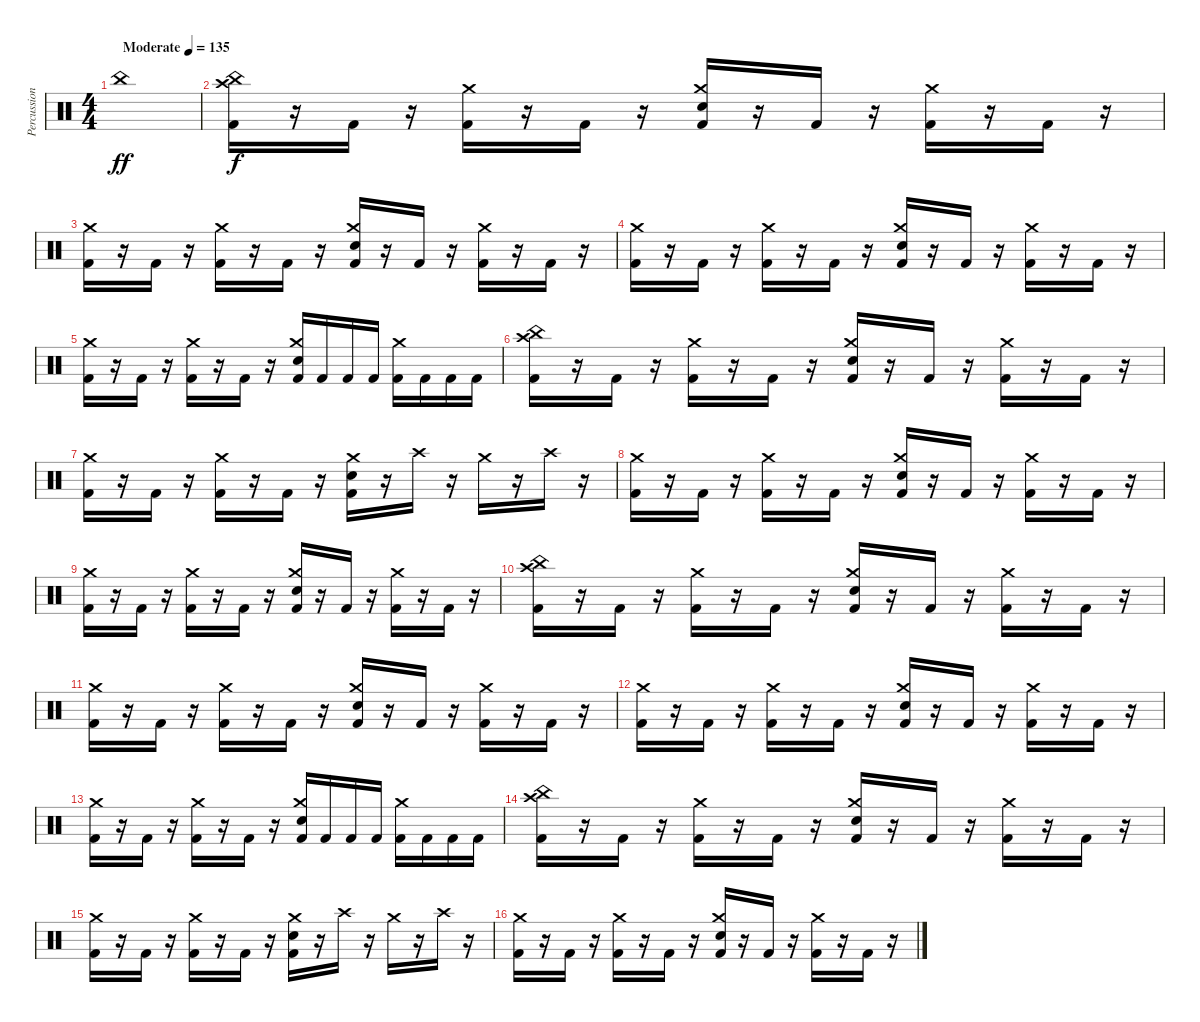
\track ("Percussion" "Percussion") {instrument percussion}
\staff {score}
\articulation defaults
\ts (4 4)
\tempo (135 "Moderate")
\clef neutral
\ks c "China (hit)".1{dy ff}
|
("Crash high (hit)" "China (hit)" "Kick (hit) 2").16{dy f} r.16 "Kick (hit) 2".16 r.16 ("Crash medium (hit)" "Kick (hit) 2").16 r.16 "Kick (hit) 2".16 r.16 ("Crash medium (hit)" "Snare (hit) 2" "Kick (hit) 2").16 r.16 "Kick (hit) 2".16 r.16 ("Crash medium (hit)" "Kick (hit) 2").16 r.16 "Kick (hit) 2".16 r.16 |
("Crash medium (hit)" "Kick (hit) 2").16 r.16 "Kick (hit) 2".16 r.16 ("Crash medium (hit)" "Kick (hit) 2").16 r.16 "Kick (hit) 2".16 r.16 ("Crash medium (hit)" "Snare (hit) 2" "Kick (hit) 2").16 r.16 "Kick (hit) 2".16 r.16 ("Crash medium (hit)" "Kick (hit) 2").16 r.16 "Kick (hit) 2".16 r.16 |
("Crash medium (hit)" "Kick (hit) 2").16 r.16 "Kick (hit) 2".16 r.16 ("Crash medium (hit)" "Kick (hit) 2").16 r.16 "Kick (hit) 2".16 r.16 ("Crash medium (hit)" "Snare (hit) 2" "Kick (hit) 2").16 r.16 "Kick (hit) 2".16 r.16 ("Crash medium (hit)" "Kick (hit) 2").16 r.16 "Kick (hit) 2".16 r.16 |
("Crash medium (hit)" "Kick (hit) 2").16 r.16 "Kick (hit) 2".16 r.16 ("Crash medium (hit)" "Kick (hit) 2").16 r.16 "Kick (hit) 2".16 r.16 ("Crash medium (hit)" "Snare (hit) 2" "Kick (hit) 2").16 "Kick (hit) 2".16 "Kick (hit) 2".16 "Kick (hit) 2".16 ("Crash medium (hit)" "Kick (hit) 2").16 "Kick (hit) 2".16 "Kick (hit) 2".16 "Kick (hit) 2".16 |
("Crash high (hit)" "China (hit)" "Kick (hit) 2").16 r.16 "Kick (hit) 2".16 r.16 ("Crash medium (hit)" "Kick (hit) 2").16 r.16 "Kick (hit) 2".16 r.16 ("Crash medium (hit)" "Snare (hit) 2" "Kick (hit) 2").16 r.16 "Kick (hit) 2".16 r.16 ("Crash medium (hit)" "Kick (hit) 2").16 r.16 "Kick (hit) 2".16 r.16 |
("Crash medium (hit)" "Kick (hit) 2").16 r.16 "Kick (hit) 2".16 r.16 ("Crash medium (hit)" "Kick (hit) 2").16 r.16 "Kick (hit) 2".16 r.16 ("Crash medium (hit)" "Snare (hit) 2" "Kick (hit) 2").16 r.16 "Crash high (hit)".16 r.16 "Crash medium (hit)".16 r.16 "Crash high (hit)".16 r.16 |
("Crash medium (hit)" "Kick (hit) 2").16 r.16 "Kick (hit) 2".16 r.16 ("Crash medium (hit)" "Kick (hit) 2").16 r.16 "Kick (hit) 2".16 r.16 ("Crash medium (hit)" "Snare (hit) 2" "Kick (hit) 2").16 r.16 "Kick (hit) 2".16 r.16 ("Crash medium (hit)" "Kick (hit) 2").16 r.16 "Kick (hit) 2".16 r.16 |
("Crash medium (hit)" "Kick (hit) 2").16 r.16 "Kick (hit) 2".16 r.16 ("Crash medium (hit)" "Kick (hit) 2").16 r.16 "Kick (hit) 2".16 r.16 ("Crash medium (hit)" "Snare (hit) 2" "Kick (hit) 2").16 r.16 "Kick (hit) 2".16 r.16 ("Crash medium (hit)" "Kick (hit) 2").16 r.16 "Kick (hit) 2".16 r.16 |
("Crash high (hit)" "China (hit)" "Kick (hit) 2").16 r.16 "Kick (hit) 2".16 r.16 ("Crash medium (hit)" "Kick (hit) 2").16 r.16 "Kick (hit) 2".16 r.16 ("Crash medium (hit)" "Snare (hit) 2" "Kick (hit) 2").16 r.16 "Kick (hit) 2".16 r.16 ("Crash medium (hit)" "Kick (hit) 2").16 r.16 "Kick (hit) 2".16 r.16 |
("Crash medium (hit)" "Kick (hit) 2").16 r.16 "Kick (hit) 2".16 r.16 ("Crash medium (hit)" "Kick (hit) 2").16 r.16 "Kick (hit) 2".16 r.16 ("Crash medium (hit)" "Snare (hit) 2" "Kick (hit) 2").16 r.16 "Kick (hit) 2".16 r.16 ("Crash medium (hit)" "Kick (hit) 2").16 r.16 "Kick (hit) 2".16 r.16 |
("Crash medium (hit)" "Kick (hit) 2").16 r.16 "Kick (hit) 2".16 r.16 ("Crash medium (hit)" "Kick (hit) 2").16 r.16 "Kick (hit) 2".16 r.16 ("Crash medium (hit)" "Snare (hit) 2" "Kick (hit) 2").16 r.16 "Kick (hit) 2".16 r.16 ("Crash medium (hit)" "Kick (hit) 2").16 r.16 "Kick (hit) 2".16 r.16 |
("Crash medium (hit)" "Kick (hit) 2").16 r.16 "Kick (hit) 2".16 r.16 ("Crash medium (hit)" "Kick (hit) 2").16 r.16 "Kick (hit) 2".16 r.16 ("Crash medium (hit)" "Snare (hit) 2" "Kick (hit) 2").16 "Kick (hit) 2".16 "Kick (hit) 2".16 "Kick (hit) 2".16 ("Crash medium (hit)" "Kick (hit) 2").16 "Kick (hit) 2".16 "Kick (hit) 2".16 "Kick (hit) 2".16 |
("Crash high (hit)" "China (hit)" "Kick (hit) 2").16 r.16 "Kick (hit) 2".16 r.16 ("Crash medium (hit)" "Kick (hit) 2").16 r.16 "Kick (hit) 2".16 r.16 ("Crash medium (hit)" "Snare (hit) 2" "Kick (hit) 2").16 r.16 "Kick (hit) 2".16 r.16 ("Crash medium (hit)" "Kick (hit) 2").16 r.16 "Kick (hit) 2".16 r.16 |
("Crash medium (hit)" "Kick (hit) 2").16 r.16 "Kick (hit) 2".16 r.16 ("Crash medium (hit)" "Kick (hit) 2").16 r.16 "Kick (hit) 2".16 r.16 ("Crash medium (hit)" "Snare (hit) 2" "Kick (hit) 2").16 r.16 "Crash high (hit)".16 r.16 "Crash medium (hit)".16 r.16 "Crash high (hit)".16 r.16 |
("Crash medium (hit)" "Kick (hit) 2").16 r.16 "Kick (hit) 2".16 r.16 ("Crash medium (hit)" "Kick (hit) 2").16 r.16 "Kick (hit) 2".16 r.16 ("Crash medium (hit)" "Snare (hit) 2" "Kick (hit) 2").16 r.16 "Kick (hit) 2".16 r.16 ("Crash medium (hit)" "Kick (hit) 2").16 r.16 "Kick (hit) 2".16 r.16
